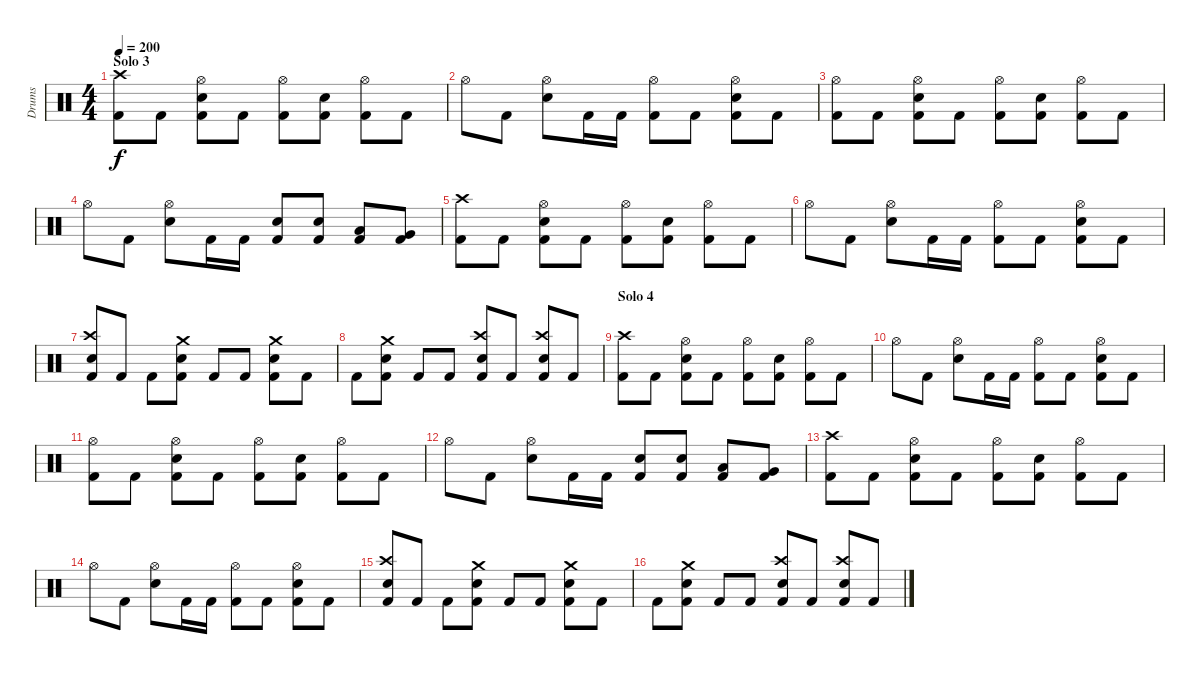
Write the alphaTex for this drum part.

\track ("Drums" "Drums") {instrument percussion}
\staff {score}
\articulation defaults
\ts (4 4)
\section ("" "Solo 3")
\tempo 200
\clef neutral
\ks c
("Kick (hit) 2" "Crash high (hit)").8{dy f} "Kick (hit) 2".8 ("Kick (hit) 2" "Electric Snare (hit)" "Hi-Hat (open)").8 "Kick (hit) 2".8 ("Kick (hit) 2" "Hi-Hat (open)").8 ("Kick (hit) 2" "Electric Snare (hit)").8 ("Kick (hit) 2" "Hi-Hat (open)").8 "Kick (hit) 2".8 |
"Hi-Hat (open)".8 "Kick (hit) 2".8 ("Electric Snare (hit)" "Hi-Hat (open)").8 "Kick (hit) 2".16 "Kick (hit) 2".16 ("Kick (hit) 2" "Hi-Hat (open)").8 "Kick (hit) 2".8 ("Kick (hit) 2" "Electric Snare (hit)" "Hi-Hat (open)").8 "Kick (hit) 2".8 |
("Kick (hit) 2" "Hi-Hat (open)").8 "Kick (hit) 2".8 ("Kick (hit) 2" "Electric Snare (hit)" "Hi-Hat (open)").8 "Kick (hit) 2".8 ("Kick (hit) 2" "Hi-Hat (open)").8 ("Kick (hit) 2" "Electric Snare (hit)").8 ("Kick (hit) 2" "Hi-Hat (open)").8 "Kick (hit) 2".8 |
"Hi-Hat (open)".8 "Kick (hit) 2".8 ("Electric Snare (hit)" "Hi-Hat (open)").8 "Kick (hit) 2".16 "Kick (hit) 2".16 ("Kick (hit) 2" "Electric Snare (hit)").8 ("Kick (hit) 2" "Electric Snare (hit)").8 ("Kick (hit) 2" "Low Tom (hit)").8 ("Kick (hit) 2" "Very Low Tom (hit)").8 |
("Kick (hit) 2" "Crash high (hit)").8 "Kick (hit) 2".8 ("Kick (hit) 2" "Electric Snare (hit)" "Hi-Hat (open)").8 "Kick (hit) 2".8 ("Kick (hit) 2" "Hi-Hat (open)").8 ("Kick (hit) 2" "Electric Snare (hit)").8 ("Kick (hit) 2" "Hi-Hat (open)").8 "Kick (hit) 2".8 |
"Hi-Hat (open)".8 "Kick (hit) 2".8 ("Electric Snare (hit)" "Hi-Hat (open)").8 "Kick (hit) 2".16 "Kick (hit) 2".16 ("Kick (hit) 2" "Hi-Hat (open)").8 "Kick (hit) 2".8 ("Kick (hit) 2" "Electric Snare (hit)" "Hi-Hat (open)").8 "Kick (hit) 2".8 |
("Kick (hit) 2" "Electric Snare (hit)" "Crash high (hit)").8 "Kick (hit) 2".8 "Kick (hit) 2".8 ("Kick (hit) 2" "Electric Snare (hit)" "Crash medium (hit)").8 "Kick (hit) 2".8 "Kick (hit) 2".8 ("Kick (hit) 2" "Electric Snare (hit)" "Crash medium (hit)").8 "Kick (hit) 2".8 |
"Kick (hit) 2".8 ("Kick (hit) 2" "Electric Snare (hit)" "Crash medium (hit)").8 "Kick (hit) 2".8 "Kick (hit) 2".8 ("Kick (hit) 2" "Electric Snare (hit)" "Crash high (hit)").8 "Kick (hit) 2".8 ("Kick (hit) 2" "Electric Snare (hit)" "Crash high (hit)").8 "Kick (hit) 2".8 |
\section ("" "Solo 4")
("Kick (hit) 2" "Crash high (hit)").8 "Kick (hit) 2".8 ("Kick (hit) 2" "Electric Snare (hit)" "Hi-Hat (open)").8 "Kick (hit) 2".8 ("Kick (hit) 2" "Hi-Hat (open)").8 ("Kick (hit) 2" "Electric Snare (hit)").8 ("Kick (hit) 2" "Hi-Hat (open)").8 "Kick (hit) 2".8 |
"Hi-Hat (open)".8 "Kick (hit) 2".8 ("Electric Snare (hit)" "Hi-Hat (open)").8 "Kick (hit) 2".16 "Kick (hit) 2".16 ("Kick (hit) 2" "Hi-Hat (open)").8 "Kick (hit) 2".8 ("Kick (hit) 2" "Electric Snare (hit)" "Hi-Hat (open)").8 "Kick (hit) 2".8 |
("Kick (hit) 2" "Hi-Hat (open)").8 "Kick (hit) 2".8 ("Kick (hit) 2" "Electric Snare (hit)" "Hi-Hat (open)").8 "Kick (hit) 2".8 ("Kick (hit) 2" "Hi-Hat (open)").8 ("Kick (hit) 2" "Electric Snare (hit)").8 ("Kick (hit) 2" "Hi-Hat (open)").8 "Kick (hit) 2".8 |
"Hi-Hat (open)".8 "Kick (hit) 2".8 ("Electric Snare (hit)" "Hi-Hat (open)").8 "Kick (hit) 2".16 "Kick (hit) 2".16 ("Kick (hit) 2" "Electric Snare (hit)").8 ("Kick (hit) 2" "Electric Snare (hit)").8 ("Kick (hit) 2" "Low Tom (hit)").8 ("Kick (hit) 2" "Very Low Tom (hit)").8 |
("Kick (hit) 2" "Crash high (hit)").8 "Kick (hit) 2".8 ("Kick (hit) 2" "Electric Snare (hit)" "Hi-Hat (open)").8 "Kick (hit) 2".8 ("Kick (hit) 2" "Hi-Hat (open)").8 ("Kick (hit) 2" "Electric Snare (hit)").8 ("Kick (hit) 2" "Hi-Hat (open)").8 "Kick (hit) 2".8 |
"Hi-Hat (open)".8 "Kick (hit) 2".8 ("Electric Snare (hit)" "Hi-Hat (open)").8 "Kick (hit) 2".16 "Kick (hit) 2".16 ("Kick (hit) 2" "Hi-Hat (open)").8 "Kick (hit) 2".8 ("Kick (hit) 2" "Electric Snare (hit)" "Hi-Hat (open)").8 "Kick (hit) 2".8 |
("Kick (hit) 2" "Electric Snare (hit)" "Crash high (hit)").8 "Kick (hit) 2".8 "Kick (hit) 2".8 ("Kick (hit) 2" "Electric Snare (hit)" "Crash medium (hit)").8 "Kick (hit) 2".8 "Kick (hit) 2".8 ("Kick (hit) 2" "Electric Snare (hit)" "Crash medium (hit)").8 "Kick (hit) 2".8 |
"Kick (hit) 2".8 ("Kick (hit) 2" "Electric Snare (hit)" "Crash medium (hit)").8 "Kick (hit) 2".8 "Kick (hit) 2".8 ("Kick (hit) 2" "Electric Snare (hit)" "Crash high (hit)").8 "Kick (hit) 2".8 ("Kick (hit) 2" "Electric Snare (hit)" "Crash high (hit)").8 "Kick (hit) 2".8
